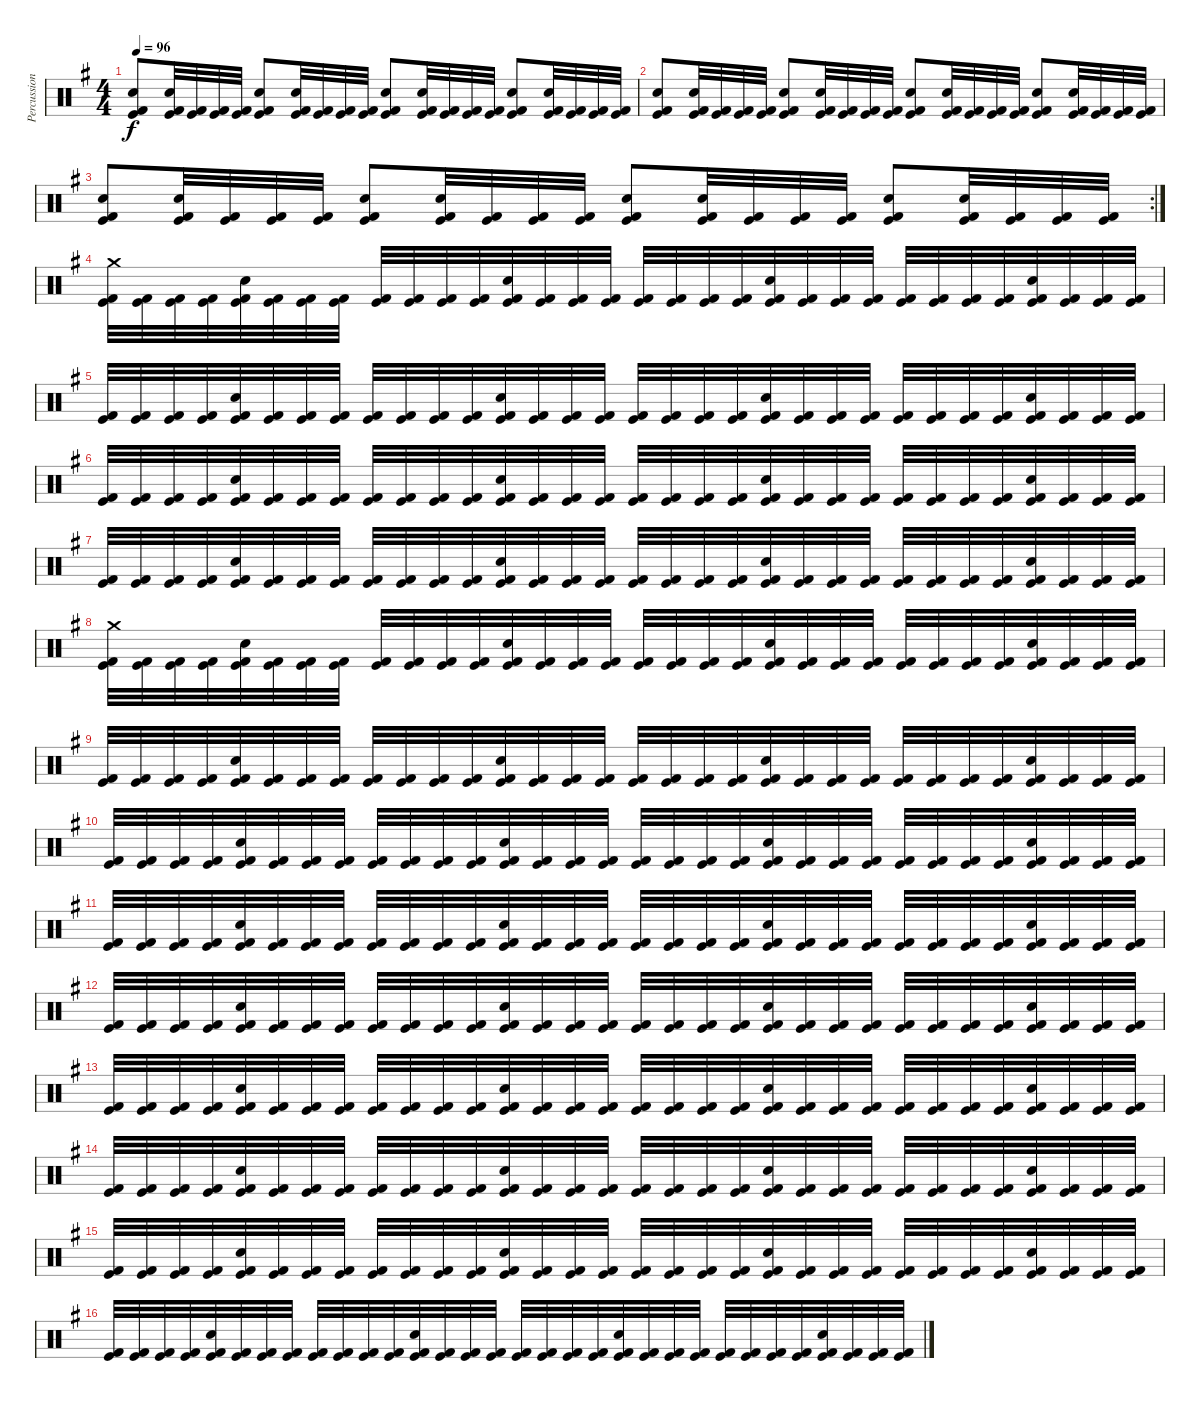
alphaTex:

\track ("Percussion" "Percussion") {instrument percussion}
\staff {score}
\articulation defaults
\ts (4 4)
\tempo 96
\clef neutral
\ks g
("Electric Snare (hit)" "Kick (hit) 2" "Kick (hit)").8{dy f} ("Electric Snare (hit)" "Kick (hit) 2" "Kick (hit)").32 ("Kick (hit) 2" "Kick (hit)").32 ("Kick (hit) 2" "Kick (hit)").32 ("Kick (hit) 2" "Kick (hit)").32 ("Electric Snare (hit)" "Kick (hit) 2" "Kick (hit)").8 ("Electric Snare (hit)" "Kick (hit) 2" "Kick (hit)").32 ("Kick (hit) 2" "Kick (hit)").32 ("Kick (hit) 2" "Kick (hit)").32 ("Kick (hit) 2" "Kick (hit)").32 ("Electric Snare (hit)" "Kick (hit) 2" "Kick (hit)").8 ("Electric Snare (hit)" "Kick (hit) 2" "Kick (hit)").32 ("Kick (hit) 2" "Kick (hit)").32 ("Kick (hit) 2" "Kick (hit)").32 ("Kick (hit) 2" "Kick (hit)").32 ("Electric Snare (hit)" "Kick (hit) 2" "Kick (hit)").8 ("Electric Snare (hit)" "Kick (hit) 2" "Kick (hit)").32 ("Kick (hit) 2" "Kick (hit)").32 ("Kick (hit) 2" "Kick (hit)").32 ("Kick (hit) 2" "Kick (hit)").32 |
("Electric Snare (hit)" "Kick (hit) 2" "Kick (hit)").8 ("Electric Snare (hit)" "Kick (hit) 2" "Kick (hit)").32 ("Kick (hit) 2" "Kick (hit)").32 ("Kick (hit) 2" "Kick (hit)").32 ("Kick (hit) 2" "Kick (hit)").32 ("Electric Snare (hit)" "Kick (hit) 2" "Kick (hit)").8 ("Electric Snare (hit)" "Kick (hit) 2" "Kick (hit)").32 ("Kick (hit) 2" "Kick (hit)").32 ("Kick (hit) 2" "Kick (hit)").32 ("Kick (hit) 2" "Kick (hit)").32 ("Electric Snare (hit)" "Kick (hit) 2" "Kick (hit)").8 ("Electric Snare (hit)" "Kick (hit) 2" "Kick (hit)").32 ("Kick (hit) 2" "Kick (hit)").32 ("Kick (hit) 2" "Kick (hit)").32 ("Kick (hit) 2" "Kick (hit)").32 ("Electric Snare (hit)" "Kick (hit) 2" "Kick (hit)").8 ("Electric Snare (hit)" "Kick (hit) 2" "Kick (hit)").32 ("Kick (hit) 2" "Kick (hit)").32 ("Kick (hit) 2" "Kick (hit)").32 ("Kick (hit) 2" "Kick (hit)").32 |
\rc 2
("Electric Snare (hit)" "Kick (hit) 2" "Kick (hit)").8 ("Electric Snare (hit)" "Kick (hit) 2" "Kick (hit)").32 ("Kick (hit) 2" "Kick (hit)").32 ("Kick (hit) 2" "Kick (hit)").32 ("Kick (hit) 2" "Kick (hit)").32 ("Electric Snare (hit)" "Kick (hit) 2" "Kick (hit)").8 ("Electric Snare (hit)" "Kick (hit) 2" "Kick (hit)").32 ("Kick (hit) 2" "Kick (hit)").32 ("Kick (hit) 2" "Kick (hit)").32 ("Kick (hit) 2" "Kick (hit)").32 ("Electric Snare (hit)" "Kick (hit) 2" "Kick (hit)").8 ("Electric Snare (hit)" "Kick (hit) 2" "Kick (hit)").32 ("Kick (hit) 2" "Kick (hit)").32 ("Kick (hit) 2" "Kick (hit)").32 ("Kick (hit) 2" "Kick (hit)").32 ("Electric Snare (hit)" "Kick (hit) 2" "Kick (hit)").8 ("Electric Snare (hit)" "Kick (hit) 2" "Kick (hit)").32 ("Kick (hit) 2" "Kick (hit)").32 ("Kick (hit) 2" "Kick (hit)").32 ("Kick (hit) 2" "Kick (hit)").32 |
("Crash medium (hit)" "Kick (hit)" "Kick (hit) 2").32 ("Kick (hit)" "Kick (hit) 2").32 ("Kick (hit)" "Kick (hit) 2").32 ("Kick (hit)" "Kick (hit) 2").32 ("Electric Snare (hit)" "Kick (hit)" "Kick (hit) 2").32 ("Kick (hit)" "Kick (hit) 2").32 ("Kick (hit)" "Kick (hit) 2").32 ("Kick (hit)" "Kick (hit) 2").32 ("Kick (hit)" "Kick (hit) 2").32 ("Kick (hit)" "Kick (hit) 2").32 ("Kick (hit)" "Kick (hit) 2").32 ("Kick (hit)" "Kick (hit) 2").32 ("Electric Snare (hit)" "Kick (hit)" "Kick (hit) 2").32 ("Kick (hit)" "Kick (hit) 2").32 ("Kick (hit)" "Kick (hit) 2").32 ("Kick (hit)" "Kick (hit) 2").32 ("Kick (hit)" "Kick (hit) 2").32 ("Kick (hit)" "Kick (hit) 2").32 ("Kick (hit)" "Kick (hit) 2").32 ("Kick (hit)" "Kick (hit) 2").32 ("Electric Snare (hit)" "Kick (hit)" "Kick (hit) 2").32 ("Kick (hit)" "Kick (hit) 2").32 ("Kick (hit)" "Kick (hit) 2").32 ("Kick (hit)" "Kick (hit) 2").32 ("Kick (hit)" "Kick (hit) 2").32 ("Kick (hit)" "Kick (hit) 2").32 ("Kick (hit)" "Kick (hit) 2").32 ("Kick (hit)" "Kick (hit) 2").32 ("Electric Snare (hit)" "Kick (hit)" "Kick (hit) 2").32 ("Kick (hit)" "Kick (hit) 2").32 ("Kick (hit)" "Kick (hit) 2").32 ("Kick (hit)" "Kick (hit) 2").32 |
("Kick (hit)" "Kick (hit) 2").32 ("Kick (hit)" "Kick (hit) 2").32 ("Kick (hit)" "Kick (hit) 2").32 ("Kick (hit)" "Kick (hit) 2").32 ("Electric Snare (hit)" "Kick (hit)" "Kick (hit) 2").32 ("Kick (hit)" "Kick (hit) 2").32 ("Kick (hit)" "Kick (hit) 2").32 ("Kick (hit)" "Kick (hit) 2").32 ("Kick (hit)" "Kick (hit) 2").32 ("Kick (hit)" "Kick (hit) 2").32 ("Kick (hit)" "Kick (hit) 2").32 ("Kick (hit)" "Kick (hit) 2").32 ("Electric Snare (hit)" "Kick (hit)" "Kick (hit) 2").32 ("Kick (hit)" "Kick (hit) 2").32 ("Kick (hit)" "Kick (hit) 2").32 ("Kick (hit)" "Kick (hit) 2").32 ("Kick (hit)" "Kick (hit) 2").32 ("Kick (hit)" "Kick (hit) 2").32 ("Kick (hit)" "Kick (hit) 2").32 ("Kick (hit)" "Kick (hit) 2").32 ("Electric Snare (hit)" "Kick (hit)" "Kick (hit) 2").32 ("Kick (hit)" "Kick (hit) 2").32 ("Kick (hit)" "Kick (hit) 2").32 ("Kick (hit)" "Kick (hit) 2").32 ("Kick (hit)" "Kick (hit) 2").32 ("Kick (hit)" "Kick (hit) 2").32 ("Kick (hit)" "Kick (hit) 2").32 ("Kick (hit)" "Kick (hit) 2").32 ("Electric Snare (hit)" "Kick (hit)" "Kick (hit) 2").32 ("Kick (hit)" "Kick (hit) 2").32 ("Kick (hit)" "Kick (hit) 2").32 ("Kick (hit)" "Kick (hit) 2").32 |
("Kick (hit)" "Kick (hit) 2").32 ("Kick (hit)" "Kick (hit) 2").32 ("Kick (hit)" "Kick (hit) 2").32 ("Kick (hit)" "Kick (hit) 2").32 ("Electric Snare (hit)" "Kick (hit)" "Kick (hit) 2").32 ("Kick (hit)" "Kick (hit) 2").32 ("Kick (hit)" "Kick (hit) 2").32 ("Kick (hit)" "Kick (hit) 2").32 ("Kick (hit)" "Kick (hit) 2").32 ("Kick (hit)" "Kick (hit) 2").32 ("Kick (hit)" "Kick (hit) 2").32 ("Kick (hit)" "Kick (hit) 2").32 ("Electric Snare (hit)" "Kick (hit)" "Kick (hit) 2").32 ("Kick (hit)" "Kick (hit) 2").32 ("Kick (hit)" "Kick (hit) 2").32 ("Kick (hit)" "Kick (hit) 2").32 ("Kick (hit)" "Kick (hit) 2").32 ("Kick (hit)" "Kick (hit) 2").32 ("Kick (hit)" "Kick (hit) 2").32 ("Kick (hit)" "Kick (hit) 2").32 ("Electric Snare (hit)" "Kick (hit)" "Kick (hit) 2").32 ("Kick (hit)" "Kick (hit) 2").32 ("Kick (hit)" "Kick (hit) 2").32 ("Kick (hit)" "Kick (hit) 2").32 ("Kick (hit)" "Kick (hit) 2").32 ("Kick (hit)" "Kick (hit) 2").32 ("Kick (hit)" "Kick (hit) 2").32 ("Kick (hit)" "Kick (hit) 2").32 ("Electric Snare (hit)" "Kick (hit)" "Kick (hit) 2").32 ("Kick (hit)" "Kick (hit) 2").32 ("Kick (hit)" "Kick (hit) 2").32 ("Kick (hit)" "Kick (hit) 2").32 |
("Kick (hit)" "Kick (hit) 2").32 ("Kick (hit)" "Kick (hit) 2").32 ("Kick (hit)" "Kick (hit) 2").32 ("Kick (hit)" "Kick (hit) 2").32 ("Electric Snare (hit)" "Kick (hit)" "Kick (hit) 2").32 ("Kick (hit)" "Kick (hit) 2").32 ("Kick (hit)" "Kick (hit) 2").32 ("Kick (hit)" "Kick (hit) 2").32 ("Kick (hit)" "Kick (hit) 2").32 ("Kick (hit)" "Kick (hit) 2").32 ("Kick (hit)" "Kick (hit) 2").32 ("Kick (hit)" "Kick (hit) 2").32 ("Electric Snare (hit)" "Kick (hit)" "Kick (hit) 2").32 ("Kick (hit)" "Kick (hit) 2").32 ("Kick (hit)" "Kick (hit) 2").32 ("Kick (hit)" "Kick (hit) 2").32 ("Kick (hit)" "Kick (hit) 2").32 ("Kick (hit)" "Kick (hit) 2").32 ("Kick (hit)" "Kick (hit) 2").32 ("Kick (hit)" "Kick (hit) 2").32 ("Electric Snare (hit)" "Kick (hit)" "Kick (hit) 2").32 ("Kick (hit)" "Kick (hit) 2").32 ("Kick (hit)" "Kick (hit) 2").32 ("Kick (hit)" "Kick (hit) 2").32 ("Kick (hit)" "Kick (hit) 2").32 ("Kick (hit)" "Kick (hit) 2").32 ("Kick (hit)" "Kick (hit) 2").32 ("Kick (hit)" "Kick (hit) 2").32 ("Electric Snare (hit)" "Kick (hit)" "Kick (hit) 2").32 ("Kick (hit)" "Kick (hit) 2").32 ("Kick (hit)" "Kick (hit) 2").32 ("Kick (hit)" "Kick (hit) 2").32 |
("Crash medium (hit)" "Kick (hit)" "Kick (hit) 2").32 ("Kick (hit)" "Kick (hit) 2").32 ("Kick (hit)" "Kick (hit) 2").32 ("Kick (hit)" "Kick (hit) 2").32 ("Electric Snare (hit)" "Kick (hit)" "Kick (hit) 2").32 ("Kick (hit)" "Kick (hit) 2").32 ("Kick (hit)" "Kick (hit) 2").32 ("Kick (hit)" "Kick (hit) 2").32 ("Kick (hit)" "Kick (hit) 2").32 ("Kick (hit)" "Kick (hit) 2").32 ("Kick (hit)" "Kick (hit) 2").32 ("Kick (hit)" "Kick (hit) 2").32 ("Electric Snare (hit)" "Kick (hit)" "Kick (hit) 2").32 ("Kick (hit)" "Kick (hit) 2").32 ("Kick (hit)" "Kick (hit) 2").32 ("Kick (hit)" "Kick (hit) 2").32 ("Kick (hit)" "Kick (hit) 2").32 ("Kick (hit)" "Kick (hit) 2").32 ("Kick (hit)" "Kick (hit) 2").32 ("Kick (hit)" "Kick (hit) 2").32 ("Electric Snare (hit)" "Kick (hit)" "Kick (hit) 2").32 ("Kick (hit)" "Kick (hit) 2").32 ("Kick (hit)" "Kick (hit) 2").32 ("Kick (hit)" "Kick (hit) 2").32 ("Kick (hit)" "Kick (hit) 2").32 ("Kick (hit)" "Kick (hit) 2").32 ("Kick (hit)" "Kick (hit) 2").32 ("Kick (hit)" "Kick (hit) 2").32 ("Electric Snare (hit)" "Kick (hit)" "Kick (hit) 2").32 ("Kick (hit)" "Kick (hit) 2").32 ("Kick (hit)" "Kick (hit) 2").32 ("Kick (hit)" "Kick (hit) 2").32 |
("Kick (hit)" "Kick (hit) 2").32 ("Kick (hit)" "Kick (hit) 2").32 ("Kick (hit)" "Kick (hit) 2").32 ("Kick (hit)" "Kick (hit) 2").32 ("Electric Snare (hit)" "Kick (hit)" "Kick (hit) 2").32 ("Kick (hit)" "Kick (hit) 2").32 ("Kick (hit)" "Kick (hit) 2").32 ("Kick (hit)" "Kick (hit) 2").32 ("Kick (hit)" "Kick (hit) 2").32 ("Kick (hit)" "Kick (hit) 2").32 ("Kick (hit)" "Kick (hit) 2").32 ("Kick (hit)" "Kick (hit) 2").32 ("Electric Snare (hit)" "Kick (hit)" "Kick (hit) 2").32 ("Kick (hit)" "Kick (hit) 2").32 ("Kick (hit)" "Kick (hit) 2").32 ("Kick (hit)" "Kick (hit) 2").32 ("Kick (hit)" "Kick (hit) 2").32 ("Kick (hit)" "Kick (hit) 2").32 ("Kick (hit)" "Kick (hit) 2").32 ("Kick (hit)" "Kick (hit) 2").32 ("Electric Snare (hit)" "Kick (hit)" "Kick (hit) 2").32 ("Kick (hit)" "Kick (hit) 2").32 ("Kick (hit)" "Kick (hit) 2").32 ("Kick (hit)" "Kick (hit) 2").32 ("Kick (hit)" "Kick (hit) 2").32 ("Kick (hit)" "Kick (hit) 2").32 ("Kick (hit)" "Kick (hit) 2").32 ("Kick (hit)" "Kick (hit) 2").32 ("Electric Snare (hit)" "Kick (hit)" "Kick (hit) 2").32 ("Kick (hit)" "Kick (hit) 2").32 ("Kick (hit)" "Kick (hit) 2").32 ("Kick (hit)" "Kick (hit) 2").32 |
("Kick (hit)" "Kick (hit) 2").32 ("Kick (hit)" "Kick (hit) 2").32 ("Kick (hit)" "Kick (hit) 2").32 ("Kick (hit)" "Kick (hit) 2").32 ("Electric Snare (hit)" "Kick (hit)" "Kick (hit) 2").32 ("Kick (hit)" "Kick (hit) 2").32 ("Kick (hit)" "Kick (hit) 2").32 ("Kick (hit)" "Kick (hit) 2").32 ("Kick (hit)" "Kick (hit) 2").32 ("Kick (hit)" "Kick (hit) 2").32 ("Kick (hit)" "Kick (hit) 2").32 ("Kick (hit)" "Kick (hit) 2").32 ("Electric Snare (hit)" "Kick (hit)" "Kick (hit) 2").32 ("Kick (hit)" "Kick (hit) 2").32 ("Kick (hit)" "Kick (hit) 2").32 ("Kick (hit)" "Kick (hit) 2").32 ("Kick (hit)" "Kick (hit) 2").32 ("Kick (hit)" "Kick (hit) 2").32 ("Kick (hit)" "Kick (hit) 2").32 ("Kick (hit)" "Kick (hit) 2").32 ("Electric Snare (hit)" "Kick (hit)" "Kick (hit) 2").32 ("Kick (hit)" "Kick (hit) 2").32 ("Kick (hit)" "Kick (hit) 2").32 ("Kick (hit)" "Kick (hit) 2").32 ("Kick (hit)" "Kick (hit) 2").32 ("Kick (hit)" "Kick (hit) 2").32 ("Kick (hit)" "Kick (hit) 2").32 ("Kick (hit)" "Kick (hit) 2").32 ("Electric Snare (hit)" "Kick (hit)" "Kick (hit) 2").32 ("Kick (hit)" "Kick (hit) 2").32 ("Kick (hit)" "Kick (hit) 2").32 ("Kick (hit)" "Kick (hit) 2").32 |
("Kick (hit)" "Kick (hit) 2").32 ("Kick (hit)" "Kick (hit) 2").32 ("Kick (hit)" "Kick (hit) 2").32 ("Kick (hit)" "Kick (hit) 2").32 ("Electric Snare (hit)" "Kick (hit)" "Kick (hit) 2").32 ("Kick (hit)" "Kick (hit) 2").32 ("Kick (hit)" "Kick (hit) 2").32 ("Kick (hit)" "Kick (hit) 2").32 ("Kick (hit)" "Kick (hit) 2").32 ("Kick (hit)" "Kick (hit) 2").32 ("Kick (hit)" "Kick (hit) 2").32 ("Kick (hit)" "Kick (hit) 2").32 ("Electric Snare (hit)" "Kick (hit)" "Kick (hit) 2").32 ("Kick (hit)" "Kick (hit) 2").32 ("Kick (hit)" "Kick (hit) 2").32 ("Kick (hit)" "Kick (hit) 2").32 ("Kick (hit)" "Kick (hit) 2").32 ("Kick (hit)" "Kick (hit) 2").32 ("Kick (hit)" "Kick (hit) 2").32 ("Kick (hit)" "Kick (hit) 2").32 ("Electric Snare (hit)" "Kick (hit)" "Kick (hit) 2").32 ("Kick (hit)" "Kick (hit) 2").32 ("Kick (hit)" "Kick (hit) 2").32 ("Kick (hit)" "Kick (hit) 2").32 ("Kick (hit)" "Kick (hit) 2").32 ("Kick (hit)" "Kick (hit) 2").32 ("Kick (hit)" "Kick (hit) 2").32 ("Kick (hit)" "Kick (hit) 2").32 ("Electric Snare (hit)" "Kick (hit)" "Kick (hit) 2").32 ("Kick (hit)" "Kick (hit) 2").32 ("Kick (hit)" "Kick (hit) 2").32 ("Kick (hit)" "Kick (hit) 2").32 |
("Kick (hit)" "Kick (hit) 2").32 ("Kick (hit)" "Kick (hit) 2").32 ("Kick (hit)" "Kick (hit) 2").32 ("Kick (hit)" "Kick (hit) 2").32 ("Electric Snare (hit)" "Kick (hit)" "Kick (hit) 2").32 ("Kick (hit)" "Kick (hit) 2").32 ("Kick (hit)" "Kick (hit) 2").32 ("Kick (hit)" "Kick (hit) 2").32 ("Kick (hit)" "Kick (hit) 2").32 ("Kick (hit)" "Kick (hit) 2").32 ("Kick (hit)" "Kick (hit) 2").32 ("Kick (hit)" "Kick (hit) 2").32 ("Electric Snare (hit)" "Kick (hit)" "Kick (hit) 2").32 ("Kick (hit)" "Kick (hit) 2").32 ("Kick (hit)" "Kick (hit) 2").32 ("Kick (hit)" "Kick (hit) 2").32 ("Kick (hit)" "Kick (hit) 2").32 ("Kick (hit)" "Kick (hit) 2").32 ("Kick (hit)" "Kick (hit) 2").32 ("Kick (hit)" "Kick (hit) 2").32 ("Electric Snare (hit)" "Kick (hit)" "Kick (hit) 2").32 ("Kick (hit)" "Kick (hit) 2").32 ("Kick (hit)" "Kick (hit) 2").32 ("Kick (hit)" "Kick (hit) 2").32 ("Kick (hit)" "Kick (hit) 2").32 ("Kick (hit)" "Kick (hit) 2").32 ("Kick (hit)" "Kick (hit) 2").32 ("Kick (hit)" "Kick (hit) 2").32 ("Electric Snare (hit)" "Kick (hit)" "Kick (hit) 2").32 ("Kick (hit)" "Kick (hit) 2").32 ("Kick (hit)" "Kick (hit) 2").32 ("Kick (hit)" "Kick (hit) 2").32 |
("Kick (hit)" "Kick (hit) 2").32 ("Kick (hit)" "Kick (hit) 2").32 ("Kick (hit)" "Kick (hit) 2").32 ("Kick (hit)" "Kick (hit) 2").32 ("Electric Snare (hit)" "Kick (hit)" "Kick (hit) 2").32 ("Kick (hit)" "Kick (hit) 2").32 ("Kick (hit)" "Kick (hit) 2").32 ("Kick (hit)" "Kick (hit) 2").32 ("Kick (hit)" "Kick (hit) 2").32 ("Kick (hit)" "Kick (hit) 2").32 ("Kick (hit)" "Kick (hit) 2").32 ("Kick (hit)" "Kick (hit) 2").32 ("Electric Snare (hit)" "Kick (hit)" "Kick (hit) 2").32 ("Kick (hit)" "Kick (hit) 2").32 ("Kick (hit)" "Kick (hit) 2").32 ("Kick (hit)" "Kick (hit) 2").32 ("Kick (hit)" "Kick (hit) 2").32 ("Kick (hit)" "Kick (hit) 2").32 ("Kick (hit)" "Kick (hit) 2").32 ("Kick (hit)" "Kick (hit) 2").32 ("Electric Snare (hit)" "Kick (hit)" "Kick (hit) 2").32 ("Kick (hit)" "Kick (hit) 2").32 ("Kick (hit)" "Kick (hit) 2").32 ("Kick (hit)" "Kick (hit) 2").32 ("Kick (hit)" "Kick (hit) 2").32 ("Kick (hit)" "Kick (hit) 2").32 ("Kick (hit)" "Kick (hit) 2").32 ("Kick (hit)" "Kick (hit) 2").32 ("Electric Snare (hit)" "Kick (hit)" "Kick (hit) 2").32 ("Kick (hit)" "Kick (hit) 2").32 ("Kick (hit)" "Kick (hit) 2").32 ("Kick (hit)" "Kick (hit) 2").32 |
("Kick (hit)" "Kick (hit) 2").32 ("Kick (hit)" "Kick (hit) 2").32 ("Kick (hit)" "Kick (hit) 2").32 ("Kick (hit)" "Kick (hit) 2").32 ("Electric Snare (hit)" "Kick (hit)" "Kick (hit) 2").32 ("Kick (hit)" "Kick (hit) 2").32 ("Kick (hit)" "Kick (hit) 2").32 ("Kick (hit)" "Kick (hit) 2").32 ("Kick (hit)" "Kick (hit) 2").32 ("Kick (hit)" "Kick (hit) 2").32 ("Kick (hit)" "Kick (hit) 2").32 ("Kick (hit)" "Kick (hit) 2").32 ("Electric Snare (hit)" "Kick (hit)" "Kick (hit) 2").32 ("Kick (hit)" "Kick (hit) 2").32 ("Kick (hit)" "Kick (hit) 2").32 ("Kick (hit)" "Kick (hit) 2").32 ("Kick (hit)" "Kick (hit) 2").32 ("Kick (hit)" "Kick (hit) 2").32 ("Kick (hit)" "Kick (hit) 2").32 ("Kick (hit)" "Kick (hit) 2").32 ("Electric Snare (hit)" "Kick (hit)" "Kick (hit) 2").32 ("Kick (hit)" "Kick (hit) 2").32 ("Kick (hit)" "Kick (hit) 2").32 ("Kick (hit)" "Kick (hit) 2").32 ("Kick (hit)" "Kick (hit) 2").32 ("Kick (hit)" "Kick (hit) 2").32 ("Kick (hit)" "Kick (hit) 2").32 ("Kick (hit)" "Kick (hit) 2").32 ("Electric Snare (hit)" "Kick (hit)" "Kick (hit) 2").32 ("Kick (hit)" "Kick (hit) 2").32 ("Kick (hit)" "Kick (hit) 2").32 ("Kick (hit)" "Kick (hit) 2").32 |
("Kick (hit)" "Kick (hit) 2").32 ("Kick (hit)" "Kick (hit) 2").32 ("Kick (hit)" "Kick (hit) 2").32 ("Kick (hit)" "Kick (hit) 2").32 ("Electric Snare (hit)" "Kick (hit)" "Kick (hit) 2").32 ("Kick (hit)" "Kick (hit) 2").32 ("Kick (hit)" "Kick (hit) 2").32 ("Kick (hit)" "Kick (hit) 2").32 ("Kick (hit)" "Kick (hit) 2").32 ("Kick (hit)" "Kick (hit) 2").32 ("Kick (hit)" "Kick (hit) 2").32 ("Kick (hit)" "Kick (hit) 2").32 ("Electric Snare (hit)" "Kick (hit)" "Kick (hit) 2").32 ("Kick (hit)" "Kick (hit) 2").32 ("Kick (hit)" "Kick (hit) 2").32 ("Kick (hit)" "Kick (hit) 2").32 ("Kick (hit)" "Kick (hit) 2").32 ("Kick (hit)" "Kick (hit) 2").32 ("Kick (hit)" "Kick (hit) 2").32 ("Kick (hit)" "Kick (hit) 2").32 ("Electric Snare (hit)" "Kick (hit)" "Kick (hit) 2").32 ("Kick (hit)" "Kick (hit) 2").32 ("Kick (hit)" "Kick (hit) 2").32 ("Kick (hit)" "Kick (hit) 2").32 ("Kick (hit)" "Kick (hit) 2").32 ("Kick (hit)" "Kick (hit) 2").32 ("Kick (hit)" "Kick (hit) 2").32 ("Kick (hit)" "Kick (hit) 2").32 ("Electric Snare (hit)" "Kick (hit)" "Kick (hit) 2").32 ("Kick (hit)" "Kick (hit) 2").32 ("Kick (hit)" "Kick (hit) 2").32 ("Kick (hit)" "Kick (hit) 2").32 |
("Kick (hit)" "Kick (hit) 2").32 ("Kick (hit)" "Kick (hit) 2").32 ("Kick (hit)" "Kick (hit) 2").32 ("Kick (hit)" "Kick (hit) 2").32 ("Electric Snare (hit)" "Kick (hit)" "Kick (hit) 2").32 ("Kick (hit)" "Kick (hit) 2").32 ("Kick (hit)" "Kick (hit) 2").32 ("Kick (hit)" "Kick (hit) 2").32 ("Kick (hit)" "Kick (hit) 2").32 ("Kick (hit)" "Kick (hit) 2").32 ("Kick (hit)" "Kick (hit) 2").32 ("Kick (hit)" "Kick (hit) 2").32 ("Electric Snare (hit)" "Kick (hit)" "Kick (hit) 2").32 ("Kick (hit)" "Kick (hit) 2").32 ("Kick (hit)" "Kick (hit) 2").32 ("Kick (hit)" "Kick (hit) 2").32 ("Kick (hit)" "Kick (hit) 2").32 ("Kick (hit)" "Kick (hit) 2").32 ("Kick (hit)" "Kick (hit) 2").32 ("Kick (hit)" "Kick (hit) 2").32 ("Electric Snare (hit)" "Kick (hit)" "Kick (hit) 2").32 ("Kick (hit)" "Kick (hit) 2").32 ("Kick (hit)" "Kick (hit) 2").32 ("Kick (hit)" "Kick (hit) 2").32 ("Kick (hit)" "Kick (hit) 2").32 ("Kick (hit)" "Kick (hit) 2").32 ("Kick (hit)" "Kick (hit) 2").32 ("Kick (hit)" "Kick (hit) 2").32 ("Electric Snare (hit)" "Kick (hit)" "Kick (hit) 2").32 ("Kick (hit)" "Kick (hit) 2").32 ("Kick (hit)" "Kick (hit) 2").32 ("Kick (hit)" "Kick (hit) 2").32
